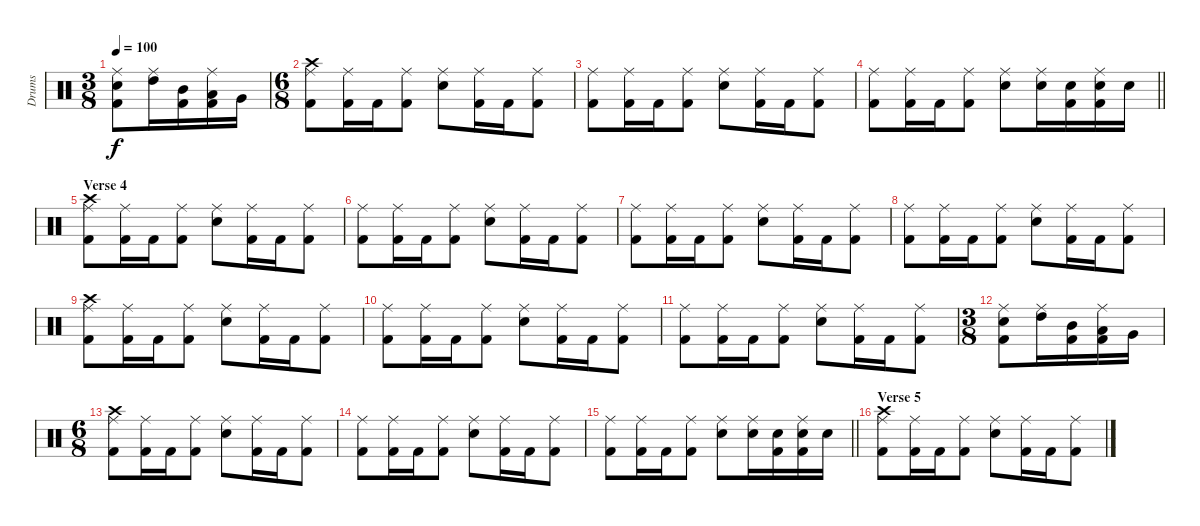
\track ("Drums" "Drums") {instrument percussion}
\staff {score}
\articulation defaults
\ts (3 8)
\tempo 100
\clef neutral
\ks c
("Ride (middle)" "Snare (hit) 2" "Kick (hit) 2").8{dy f} ("Ride (middle)" "High Tom (hit)").16 ("Mid Tom (hit)" "Kick (hit) 2").16 ("Ride (middle)" "Low Tom (hit)" "Kick (hit) 2").16 "Very Low Tom (hit)".16 |
\ts (6 8)
("Crash high (hit)" "Ride (middle)" "Kick (hit) 2").8 ("Ride (middle)" "Kick (hit) 2").16 "Kick (hit) 2".16 ("Ride (middle)" "Kick (hit) 2").8 ("Ride (middle)" "Snare (hit) 2").8 ("Ride (middle)" "Kick (hit) 2").16 "Kick (hit) 2".16 ("Ride (middle)" "Kick (hit) 2").8 |
("Ride (middle)" "Kick (hit) 2").8 ("Ride (middle)" "Kick (hit) 2").16 "Kick (hit) 2".16 ("Ride (middle)" "Kick (hit) 2").8 ("Ride (middle)" "Snare (hit) 2").8 ("Ride (middle)" "Kick (hit) 2").16 "Kick (hit) 2".16 ("Ride (middle)" "Kick (hit) 2").8 |
\barLineRight lightlight
("Ride (middle)" "Kick (hit) 2").8 ("Ride (middle)" "Kick (hit) 2").16 "Kick (hit) 2".16 ("Ride (middle)" "Kick (hit) 2").8 ("Ride (middle)" "Snare (hit) 2").8 ("Ride (middle)" "Snare (hit) 2").16 ("Snare (hit) 2" "Kick (hit) 2").16 ("Ride (middle)" "Snare (hit) 2" "Kick (hit) 2").16 "Snare (hit) 2".16 |
\section ("" "Verse 4")
("Crash high (hit)" "Ride (middle)" "Kick (hit) 2").8 ("Ride (middle)" "Kick (hit) 2").16 "Kick (hit) 2".16 ("Ride (middle)" "Kick (hit) 2").8 ("Ride (middle)" "Snare (hit) 2").8 ("Ride (middle)" "Kick (hit) 2").16 "Kick (hit) 2".16 ("Ride (middle)" "Kick (hit) 2").8 |
("Ride (middle)" "Kick (hit) 2").8 ("Ride (middle)" "Kick (hit) 2").16 "Kick (hit) 2".16 ("Ride (middle)" "Kick (hit) 2").8 ("Ride (middle)" "Snare (hit) 2").8 ("Ride (middle)" "Kick (hit) 2").16 "Kick (hit) 2".16 ("Ride (middle)" "Kick (hit) 2").8 |
("Ride (middle)" "Kick (hit) 2").8 ("Ride (middle)" "Kick (hit) 2").16 "Kick (hit) 2".16 ("Ride (middle)" "Kick (hit) 2").8 ("Ride (middle)" "Snare (hit) 2").8 ("Ride (middle)" "Kick (hit) 2").16 "Kick (hit) 2".16 ("Ride (middle)" "Kick (hit) 2").8 |
("Ride (middle)" "Kick (hit) 2").8 ("Ride (middle)" "Kick (hit) 2").16 "Kick (hit) 2".16 ("Ride (middle)" "Kick (hit) 2").8 ("Ride (middle)" "Snare (hit) 2").8 ("Ride (middle)" "Kick (hit) 2").16 "Kick (hit) 2".16 ("Ride (middle)" "Kick (hit) 2").8 |
("Crash high (hit)" "Ride (middle)" "Kick (hit) 2").8 ("Ride (middle)" "Kick (hit) 2").16 "Kick (hit) 2".16 ("Ride (middle)" "Kick (hit) 2").8 ("Ride (middle)" "Snare (hit) 2").8 ("Ride (middle)" "Kick (hit) 2").16 "Kick (hit) 2".16 ("Ride (middle)" "Kick (hit) 2").8 |
("Ride (middle)" "Kick (hit) 2").8 ("Ride (middle)" "Kick (hit) 2").16 "Kick (hit) 2".16 ("Ride (middle)" "Kick (hit) 2").8 ("Ride (middle)" "Snare (hit) 2").8 ("Ride (middle)" "Kick (hit) 2").16 "Kick (hit) 2".16 ("Ride (middle)" "Kick (hit) 2").8 |
("Ride (middle)" "Kick (hit) 2").8 ("Ride (middle)" "Kick (hit) 2").16 "Kick (hit) 2".16 ("Ride (middle)" "Kick (hit) 2").8 ("Ride (middle)" "Snare (hit) 2").8 ("Ride (middle)" "Kick (hit) 2").16 "Kick (hit) 2".16 ("Ride (middle)" "Kick (hit) 2").8 |
\ts (3 8)
("Ride (middle)" "Snare (hit) 2" "Kick (hit) 2").8 ("Ride (middle)" "High Tom (hit)").16 ("Mid Tom (hit)" "Kick (hit) 2").16 ("Ride (middle)" "Low Tom (hit)" "Kick (hit) 2").16 "Very Low Tom (hit)".16 |
\ts (6 8)
("Crash high (hit)" "Ride (middle)" "Kick (hit) 2").8 ("Ride (middle)" "Kick (hit) 2").16 "Kick (hit) 2".16 ("Ride (middle)" "Kick (hit) 2").8 ("Ride (middle)" "Snare (hit) 2").8 ("Ride (middle)" "Kick (hit) 2").16 "Kick (hit) 2".16 ("Ride (middle)" "Kick (hit) 2").8 |
("Ride (middle)" "Kick (hit) 2").8 ("Ride (middle)" "Kick (hit) 2").16 "Kick (hit) 2".16 ("Ride (middle)" "Kick (hit) 2").8 ("Ride (middle)" "Snare (hit) 2").8 ("Ride (middle)" "Kick (hit) 2").16 "Kick (hit) 2".16 ("Ride (middle)" "Kick (hit) 2").8 |
\barLineRight lightlight
("Ride (middle)" "Kick (hit) 2").8 ("Ride (middle)" "Kick (hit) 2").16 "Kick (hit) 2".16 ("Ride (middle)" "Kick (hit) 2").8 ("Ride (middle)" "Snare (hit) 2").8 ("Ride (middle)" "Snare (hit) 2").16 ("Snare (hit) 2" "Kick (hit) 2").16 ("Ride (middle)" "Snare (hit) 2" "Kick (hit) 2").16 "Snare (hit) 2".16 |
\section ("" "Verse 5")
("Crash high (hit)" "Ride (middle)" "Kick (hit) 2").8 ("Ride (middle)" "Kick (hit) 2").16 "Kick (hit) 2".16 ("Ride (middle)" "Kick (hit) 2").8 ("Ride (middle)" "Snare (hit) 2").8 ("Ride (middle)" "Kick (hit) 2").16 "Kick (hit) 2".16 ("Ride (middle)" "Kick (hit) 2").8
